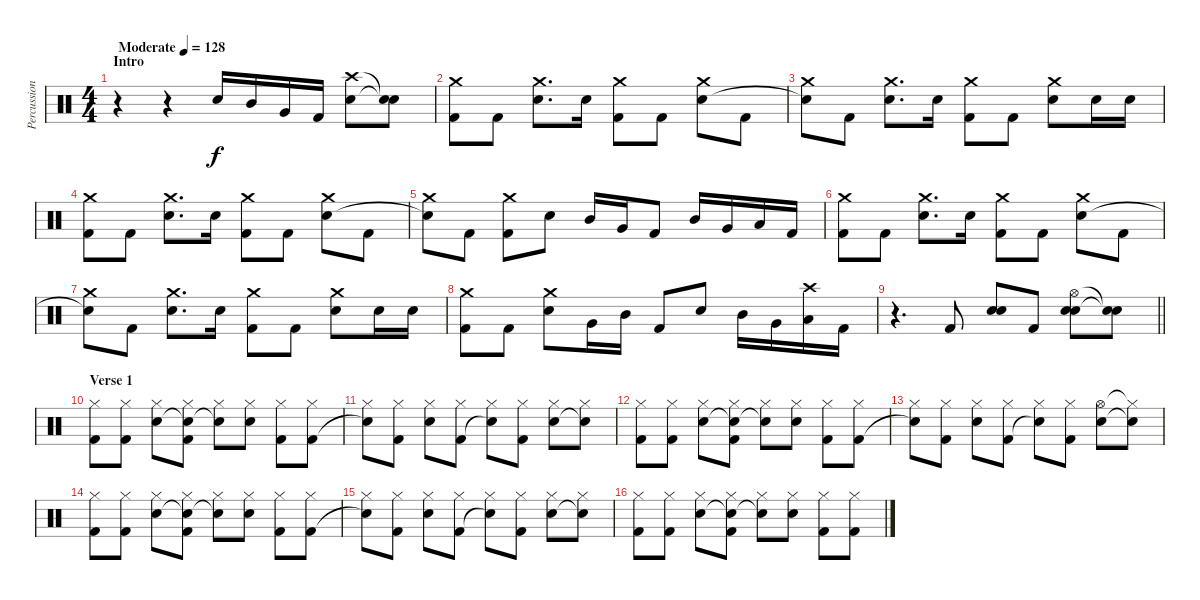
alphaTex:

\track ("Percussion" "Percussion") {instrument percussion}
\staff {score}
\articulation defaults
\ts (4 4)
\section ("" "Intro")
\tempo (128 "Moderate")
\clef neutral
\ks c
r.4{dy f} r.4 "Snare (hit) 2".16 "Mid Tom (hit)".16 "Very Low Tom (hit)".16 "Kick (hit) 2".16 ("Crash high (hit)" "Snare (hit) 2").8 ("Snare (hit)"{t} "Snare (hit)"{t}).8 |
("Crash medium (hit)" "Kick (hit) 2").8 "Kick (hit) 2".8 ("Crash medium (hit)" "Snare (hit) 2").8{d} "Snare (hit) 2".16 ("Crash medium (hit)" "Kick (hit) 2").8 "Kick (hit) 2".8 ("Crash medium (hit)" "Snare (hit) 2").8 "Kick (hit) 2".8 |
("Crash medium (hit)" "Snare (hit)"{t}).8 "Kick (hit) 2".8 ("Crash medium (hit)" "Snare (hit) 2").8{d} "Snare (hit) 2".16 ("Crash medium (hit)" "Kick (hit) 2").8 "Kick (hit) 2".8 ("Crash medium (hit)" "Snare (hit) 2").8 "Snare (hit) 2".16 "Snare (hit) 2".16 |
("Crash medium (hit)" "Kick (hit) 2").8 "Kick (hit) 2".8 ("Crash medium (hit)" "Snare (hit) 2").8{d} "Snare (hit) 2".16 ("Crash medium (hit)" "Kick (hit) 2").8 "Kick (hit) 2".8 ("Crash medium (hit)" "Snare (hit) 2").8 "Kick (hit) 2".8 |
("Crash medium (hit)" "Snare (hit)"{t}).8 "Kick (hit) 2".8 ("Crash medium (hit)" "Kick (hit) 2").8 "Snare (hit) 2".8 "Mid Tom (hit)".16 "Very Low Tom (hit)".16 "Kick (hit) 2".8 "Mid Tom (hit)".16 "Very Low Tom (hit)".16 "Low Tom (hit)".16 "Kick (hit) 2".16 |
("Crash medium (hit)" "Kick (hit) 2").8 "Kick (hit) 2".8 ("Crash medium (hit)" "Snare (hit) 2").8{d} "Snare (hit) 2".16 ("Crash medium (hit)" "Kick (hit) 2").8 "Kick (hit) 2".8 ("Crash medium (hit)" "Snare (hit) 2").8 "Kick (hit) 2".8 |
("Crash medium (hit)" "Snare (hit)"{t}).8 "Kick (hit) 2".8 ("Crash medium (hit)" "Snare (hit) 2").8{d} "Snare (hit) 2".16 ("Crash medium (hit)" "Kick (hit) 2").8 "Kick (hit) 2".8 ("Crash medium (hit)" "Snare (hit) 2").8 "Snare (hit) 2".16 "Snare (hit) 2".16 |
("Crash medium (hit)" "Kick (hit) 2").8 "Kick (hit) 2".8 ("Crash medium (hit)" "Snare (hit) 2").8 "Very Low Tom (hit)".16 "Mid Tom (hit)".16 "Kick (hit) 2".8 "Snare (hit) 2".8 "Mid Tom (hit)".16 "Very Low Tom (hit)".16 ("Crash high (hit)" "Low Tom (hit)").16 "Kick (hit) 2".16 |
\barLineRight lightlight
r.4{d} "Kick (hit) 2".8 ("Snare (hit) 2" "Snare (hit) 2").8 "Kick (hit) 2".8 ("Hi-Hat (open)" "Snare (hit) 2" "Snare (hit) 2").8 ("Snare (hit)"{t} "Snare (hit)"{t}).8 |
\section ("" "Verse 1")
("Hi-Hat (closed)" "Kick (hit) 2").8 ("Hi-Hat (closed)" "Kick (hit) 2").8 ("Hi-Hat (closed)" "Snare (hit) 2").8 ("Hi-Hat (closed)" "Snare (hit)"{t} "Kick (hit) 2").8 ("Hi-Hat (closed)" "Snare (hit)"{t}).8 ("Hi-Hat (closed)" "Snare (hit) 2").8 ("Hi-Hat (closed)" "Kick (hit) 2").8 ("Hi-Hat (closed)" "Kick (hit) 2").8 |
("Hi-Hat (closed)" "Snare (hit)"{t}).8 ("Hi-Hat (closed)" "Kick (hit) 2").8 ("Hi-Hat (closed)" "Snare (hit) 2").8 ("Hi-Hat (closed)" "Kick (hit) 2").8 ("Hi-Hat (closed)" "Snare (hit)"{t}).8 ("Hi-Hat (closed)" "Kick (hit) 2").8 ("Hi-Hat (closed)" "Snare (hit) 2").8 ("Hi-Hat (closed)" "Snare (hit)"{t}).8 |
("Hi-Hat (closed)" "Kick (hit) 2").8 ("Hi-Hat (closed)" "Kick (hit) 2").8 ("Hi-Hat (closed)" "Snare (hit) 2").8 ("Hi-Hat (closed)" "Snare (hit)"{t} "Kick (hit) 2").8 ("Hi-Hat (closed)" "Snare (hit)"{t}).8 ("Hi-Hat (closed)" "Snare (hit) 2").8 ("Hi-Hat (closed)" "Kick (hit) 2").8 ("Hi-Hat (closed)" "Kick (hit) 2").8 |
("Hi-Hat (closed)" "Snare (hit)"{t}).8 ("Hi-Hat (closed)" "Kick (hit) 2").8 ("Hi-Hat (closed)" "Snare (hit) 2").8 ("Hi-Hat (closed)" "Kick (hit) 2").8 ("Hi-Hat (closed)" "Snare (hit)"{t}).8 ("Hi-Hat (closed)" "Kick (hit) 2").8 ("Hi-Hat (open)" "Snare (hit) 2").8 ("Hi-Hat (closed)"{t} "Snare (hit)"{t}).8 |
("Hi-Hat (closed)" "Kick (hit) 2").8 ("Hi-Hat (closed)" "Kick (hit) 2").8 ("Hi-Hat (closed)" "Snare (hit) 2").8 ("Hi-Hat (closed)" "Snare (hit)"{t} "Kick (hit) 2").8 ("Hi-Hat (closed)" "Snare (hit)"{t}).8 ("Hi-Hat (closed)" "Snare (hit) 2").8 ("Hi-Hat (closed)" "Kick (hit) 2").8 ("Hi-Hat (closed)" "Kick (hit) 2").8 |
("Hi-Hat (closed)" "Snare (hit)"{t}).8 ("Hi-Hat (closed)" "Kick (hit) 2").8 ("Hi-Hat (closed)" "Snare (hit) 2").8 ("Hi-Hat (closed)" "Kick (hit) 2").8 ("Hi-Hat (closed)" "Snare (hit)"{t}).8 ("Hi-Hat (closed)" "Kick (hit) 2").8 ("Hi-Hat (closed)" "Snare (hit) 2").8 ("Hi-Hat (closed)" "Snare (hit)"{t}).8 |
("Hi-Hat (closed)" "Kick (hit) 2").8 ("Hi-Hat (closed)" "Kick (hit) 2").8 ("Hi-Hat (closed)" "Snare (hit) 2").8 ("Hi-Hat (closed)" "Snare (hit)"{t} "Kick (hit) 2").8 ("Hi-Hat (closed)" "Snare (hit)"{t}).8 ("Hi-Hat (closed)" "Snare (hit) 2").8 ("Hi-Hat (closed)" "Kick (hit) 2").8 ("Hi-Hat (closed)" "Kick (hit) 2").8
